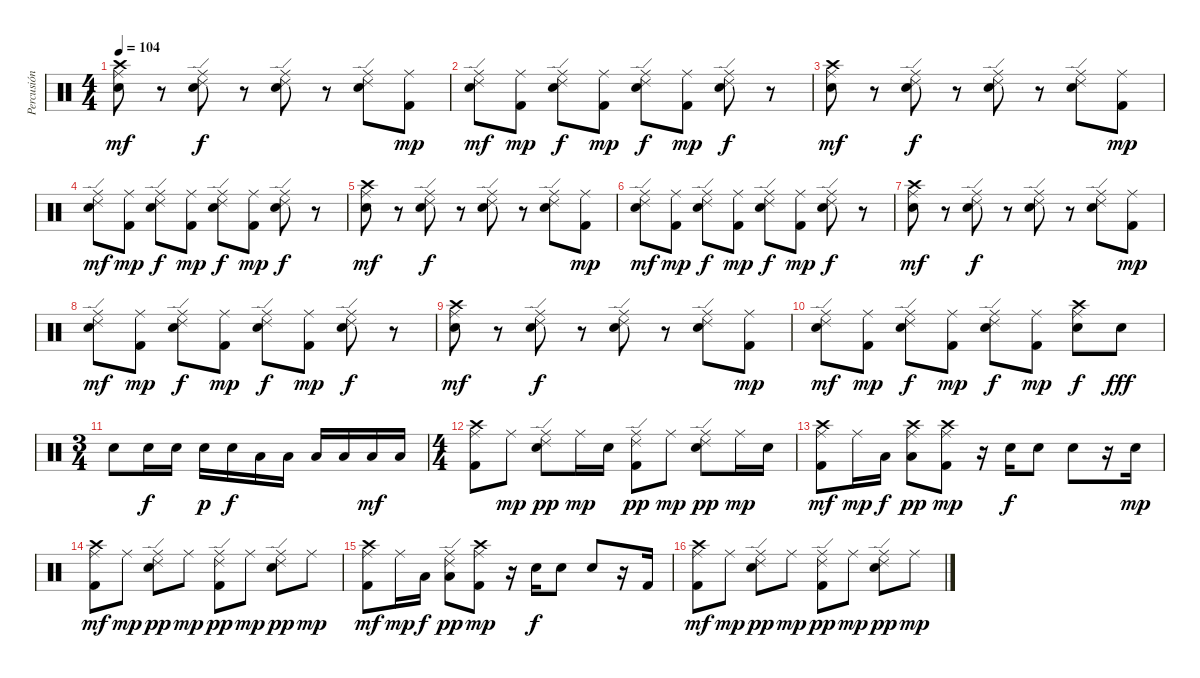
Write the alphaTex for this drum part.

\track ("Percusión" "Percusión") {instrument percussion}
\staff {score}
\articulation defaults
\ts (4 4)
\tempo 104
\clef neutral
\ks c
("Crash high (hit)" "Ride (middle)" "Snare (hit) 2").8{dy mf} r.8 ("Ride (edge) 2" "Ride (middle)" "Snare (hit) 2").8{dy f} r.8 ("Ride (edge) 2" "Ride (middle)" "Snare (hit) 2").8 r.8 ("Ride (edge) 2" "Ride (middle)" "Snare (hit) 2").8 ("Ride (middle)" "Kick (hit) 2").8{dy mp} |
("Ride (edge) 2" "Ride (middle)" "Snare (hit) 2").8{dy mf} ("Ride (middle)" "Kick (hit) 2").8{dy mp} ("Ride (edge) 2" "Ride (middle)" "Snare (hit) 2").8{dy f} ("Ride (middle)" "Kick (hit) 2").8{dy mp} ("Ride (edge) 2" "Ride (middle)" "Snare (hit) 2").8{dy f} ("Ride (middle)" "Kick (hit) 2").8{dy mp} ("Ride (edge) 2" "Ride (middle)" "Snare (hit) 2").8{dy f} r.8 |
("Crash high (hit)" "Ride (middle)" "Snare (hit) 2").8{dy mf} r.8 ("Ride (edge) 2" "Ride (middle)" "Snare (hit) 2").8{dy f} r.8 ("Ride (edge) 2" "Ride (middle)" "Snare (hit) 2").8 r.8 ("Ride (edge) 2" "Ride (middle)" "Snare (hit) 2").8 ("Ride (middle)" "Kick (hit) 2").8{dy mp} |
("Ride (edge) 2" "Ride (middle)" "Snare (hit) 2").8{dy mf} ("Ride (middle)" "Kick (hit) 2").8{dy mp} ("Ride (edge) 2" "Ride (middle)" "Snare (hit) 2").8{dy f} ("Ride (middle)" "Kick (hit) 2").8{dy mp} ("Ride (edge) 2" "Ride (middle)" "Snare (hit) 2").8{dy f} ("Ride (middle)" "Kick (hit) 2").8{dy mp} ("Ride (edge) 2" "Ride (middle)" "Snare (hit) 2").8{dy f} r.8 |
("Crash high (hit)" "Ride (middle)" "Snare (hit) 2").8{dy mf} r.8 ("Ride (edge) 2" "Ride (middle)" "Snare (hit) 2").8{dy f} r.8 ("Ride (edge) 2" "Ride (middle)" "Snare (hit) 2").8 r.8 ("Ride (edge) 2" "Ride (middle)" "Snare (hit) 2").8 ("Ride (middle)" "Kick (hit) 2").8{dy mp} |
("Ride (edge) 2" "Ride (middle)" "Snare (hit) 2").8{dy mf} ("Ride (middle)" "Kick (hit) 2").8{dy mp} ("Ride (edge) 2" "Ride (middle)" "Snare (hit) 2").8{dy f} ("Ride (middle)" "Kick (hit) 2").8{dy mp} ("Ride (edge) 2" "Ride (middle)" "Snare (hit) 2").8{dy f} ("Ride (middle)" "Kick (hit) 2").8{dy mp} ("Ride (edge) 2" "Ride (middle)" "Snare (hit) 2").8{dy f} r.8 |
("Crash high (hit)" "Ride (middle)" "Snare (hit) 2").8{dy mf} r.8 ("Ride (edge) 2" "Ride (middle)" "Snare (hit) 2").8{dy f} r.8 ("Ride (edge) 2" "Ride (middle)" "Snare (hit) 2").8 r.8 ("Ride (edge) 2" "Ride (middle)" "Snare (hit) 2").8 ("Ride (middle)" "Kick (hit) 2").8{dy mp} |
("Ride (edge) 2" "Ride (middle)" "Snare (hit) 2").8{dy mf} ("Ride (middle)" "Kick (hit) 2").8{dy mp} ("Ride (edge) 2" "Ride (middle)" "Snare (hit) 2").8{dy f} ("Ride (middle)" "Kick (hit) 2").8{dy mp} ("Ride (edge) 2" "Ride (middle)" "Snare (hit) 2").8{dy f} ("Ride (middle)" "Kick (hit) 2").8{dy mp} ("Ride (edge) 2" "Ride (middle)" "Snare (hit) 2").8{dy f} r.8 |
("Crash high (hit)" "Ride (middle)" "Snare (hit) 2").8{dy mf} r.8 ("Ride (edge) 2" "Ride (middle)" "Snare (hit) 2").8{dy f} r.8 ("Ride (edge) 2" "Ride (middle)" "Snare (hit) 2").8 r.8 ("Ride (edge) 2" "Ride (middle)" "Snare (hit) 2").8 ("Ride (middle)" "Kick (hit) 2").8{dy mp} |
("Ride (edge) 2" "Ride (middle)" "Snare (hit) 2").8{dy mf} ("Ride (middle)" "Kick (hit) 2").8{dy mp} ("Ride (edge) 2" "Ride (middle)" "Snare (hit) 2").8{dy f} ("Ride (middle)" "Kick (hit) 2").8{dy mp} ("Ride (edge) 2" "Ride (middle)" "Snare (hit) 2").8{dy f} ("Ride (middle)" "Kick (hit) 2").8{dy mp} ("Crash high (hit)" "Ride (middle)" "Snare (hit) 2").8{dy f} "Snare (hit) 2".8{dy fff} |
\ts (3 4)
"Snare (hit) 2".8 "Snare (hit) 2".16{dy f} "Snare (hit) 2".16 "Snare (hit) 2".16{dy p} "Snare (hit) 2".16{dy f} "Low Tom (hit)".16 "Low Tom (hit)".16 "Low Floor Tom (hit)".16 "Low Floor Tom (hit)".16 "Low Floor Tom (hit)".16{dy mf} "Low Floor Tom (hit)".16 |
\ts (4 4)
("Crash high (hit)" "Ride (middle)" "Kick (hit) 2").8 "Ride (middle)".8{dy mp} ("Ride (edge) 2" "Ride (middle)" "Snare (hit) 2").8{dy pp} "Ride (middle)".16{dy mp} "Snare (hit) 2".16 ("Ride (edge) 2" "Ride (middle)" "Kick (hit) 2").8{dy pp} "Ride (middle)".8{dy mp} ("Ride (edge) 2" "Ride (middle)" "Snare (hit) 2").8{dy pp} "Ride (middle)".16{dy mp} "Snare (hit) 2".16 |
("Crash high (hit)" "Ride (middle)" "Kick (hit) 2").8{dy mf} "Ride (middle)".16{dy mp} "Low Floor Tom (hit)".16{dy f} ("Crash high (hit)" "Ride (middle)" "Low Floor Tom (hit)").8{dy pp} ("Crash high (hit)" "Ride (middle)" "Kick (hit) 2").8{dy mp} r.16 "Snare (hit) 2".16{dy f} "Snare (hit) 2".8 "Snare (hit) 2".8 r.16 "Snare (hit) 2".16{dy mp} |
("Crash high (hit)" "Ride (middle)" "Kick (hit) 2").8{dy mf} "Ride (middle)".8{dy mp} ("Ride (edge) 2" "Ride (middle)" "Snare (hit) 2").8{dy pp} "Ride (middle)".8{dy mp} ("Ride (edge) 2" "Ride (middle)" "Kick (hit) 2").8{dy pp} "Ride (middle)".8{dy mp} ("Ride (edge) 2" "Ride (middle)" "Snare (hit) 2").8{dy pp} "Ride (middle)".8{dy mp} |
("Crash high (hit)" "Ride (middle)" "Kick (hit) 2").8{dy mf} "Ride (middle)".16{dy mp} "Low Floor Tom (hit)".16{dy f} ("Ride (edge) 2" "Ride (middle)" "Low Floor Tom (hit)").8{dy pp} ("Crash high (hit)" "Ride (middle)" "Kick (hit) 2").8{dy mp} r.16 "Snare (hit) 2".16{dy f} "Snare (hit) 2".8 "Snare (hit) 2".8 r.16 "Kick (hit) 2".16 |
("Crash high (hit)" "Ride (middle)" "Kick (hit) 2").8{dy mf} "Ride (middle)".8{dy mp} ("Ride (edge) 2" "Ride (middle)" "Snare (hit) 2").8{dy pp} "Ride (middle)".8{dy mp} ("Ride (edge) 2" "Ride (middle)" "Kick (hit) 2").8{dy pp} "Ride (middle)".8{dy mp} ("Ride (edge) 2" "Ride (middle)" "Snare (hit) 2").8{dy pp} "Ride (middle)".8{dy mp}
